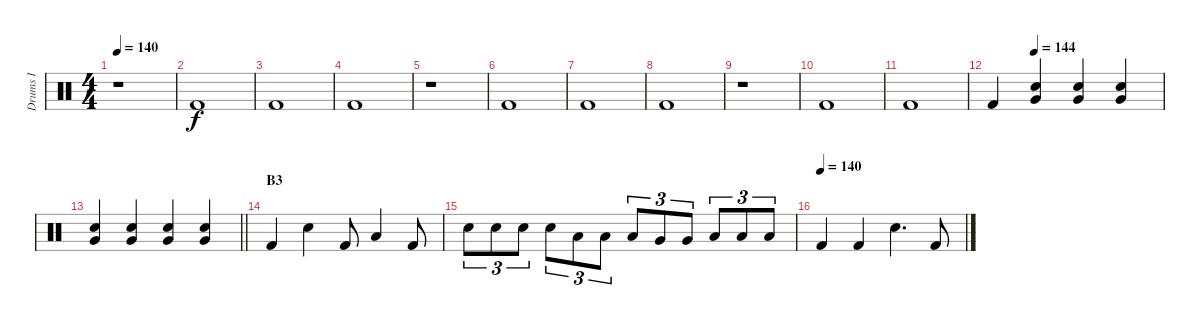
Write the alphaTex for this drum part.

\track ("Drums I" "Drums I") {instrument percussion}
\staff {score}
\articulation defaults
\ts (4 4)
\tempo 140
\clef neutral
\ks c
r.1{dy f} |
"Kick (hit) 2".1 |
"Kick (hit) 2".1 |
"Kick (hit) 2".1 |
r.1 |
"Kick (hit) 2".1 |
"Kick (hit) 2".1 |
"Kick (hit) 2".1 |
r.1 |
"Kick (hit) 2".1 |
"Kick (hit) 2".1 |
\tempo (144 0.25)
"Kick (hit) 2".4 ("Electric Snare (hit)" "Very Low Tom (hit)").4 ("Electric Snare (hit)" "Very Low Tom (hit)").4 ("Electric Snare (hit)" "Very Low Tom (hit)").4 |
\barLineRight lightlight
("Electric Snare (hit)" "Very Low Tom (hit)").4 ("Electric Snare (hit)" "Very Low Tom (hit)").4 ("Electric Snare (hit)" "Very Low Tom (hit)").4 ("Electric Snare (hit)" "Very Low Tom (hit)").4 |
\section ("" "B3")
"Kick (hit) 2".4 "Electric Snare (hit)".4 "Kick (hit) 2".8 "Low Tom (hit)".4 "Kick (hit) 2".8 |
"Electric Snare (hit)".8{tu (3 2)} "Electric Snare (hit)".8{tu (3 2)} "Electric Snare (hit)".8{tu (3 2)} "Electric Snare (hit)".8{tu (3 2)} "Low Tom (hit)".8{tu (3 2)} "Low Tom (hit)".8{tu (3 2)} "Low Tom (hit)".8{tu (3 2)} "Very Low Tom (hit)".8{tu (3 2)} "Very Low Tom (hit)".8{tu (3 2)} "Low Floor Tom (hit)".8{tu (3 2)} "Low Floor Tom (hit)".8{tu (3 2)} "Low Floor Tom (hit)".8{tu (3 2)} |
\tempo (140)
"Kick (hit) 2".4 "Kick (hit) 2".4 "Electric Snare (hit)".4{d} "Kick (hit) 2".8
